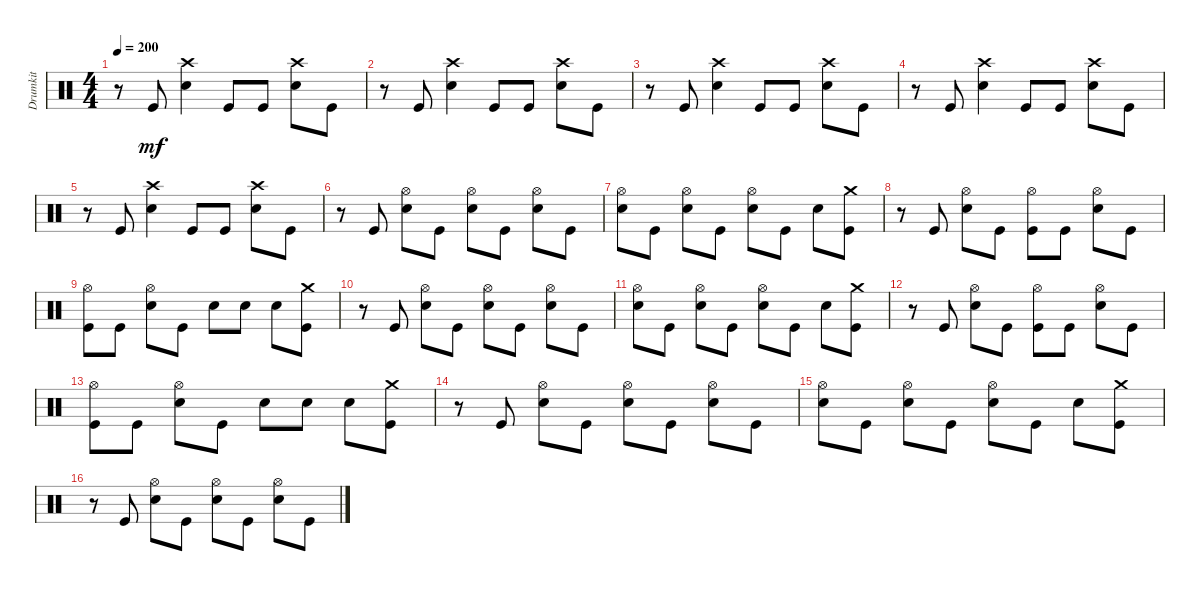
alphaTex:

\track ("Drumkit" "Drumkit") {instrument percussion}
\staff {score}
\articulation defaults
\ts (4 4)
\tempo 200
\clef neutral
\ks c
r.8{dy mf} "Kick (hit)".8 ("Snare (hit) 2" "Crash high (hit)").4 "Kick (hit)".8 "Kick (hit)".8 ("Snare (hit) 2" "Crash high (hit)").8 "Kick (hit)".8 |
r.8 "Kick (hit)".8 ("Snare (hit) 2" "Crash high (hit)").4 "Kick (hit)".8 "Kick (hit)".8 ("Snare (hit) 2" "Crash high (hit)").8 "Kick (hit)".8 |
r.8 "Kick (hit)".8 ("Snare (hit) 2" "Crash high (hit)").4 "Kick (hit)".8 "Kick (hit)".8 ("Snare (hit) 2" "Crash high (hit)").8 "Kick (hit)".8 |
r.8 "Kick (hit)".8 ("Snare (hit) 2" "Crash high (hit)").4 "Kick (hit)".8 "Kick (hit)".8 ("Snare (hit) 2" "Crash high (hit)").8 "Kick (hit)".8 |
r.8 "Kick (hit)".8 ("Snare (hit) 2" "Crash high (hit)").4 "Kick (hit)".8 "Kick (hit)".8 ("Snare (hit) 2" "Crash high (hit)").8 "Kick (hit)".8 |
r.8 "Kick (hit)".8 ("Hi-Hat (open)" "Snare (hit) 2").8 "Kick (hit)".8 ("Hi-Hat (open)" "Snare (hit) 2").8 "Kick (hit)".8 ("Snare (hit) 2" "Hi-Hat (open)").8 "Kick (hit)".8 |
("Snare (hit) 2" "Hi-Hat (open)").8 "Kick (hit)".8 ("Hi-Hat (open)" "Snare (hit) 2").8 "Kick (hit)".8 ("Hi-Hat (open)" "Snare (hit) 2").8 "Kick (hit)".8 "Snare (hit) 2".8 ("Kick (hit)" "Crash medium (hit)").8 |
r.8 "Kick (hit)".8 ("Hi-Hat (open)" "Snare (hit) 2").8 "Kick (hit)".8 ("Kick (hit)" "Hi-Hat (open)").8 "Kick (hit)".8 ("Snare (hit) 2" "Hi-Hat (open)").8 "Kick (hit)".8 |
("Kick (hit)" "Hi-Hat (open)").8 "Kick (hit)".8 ("Hi-Hat (open)" "Snare (hit) 2").8 "Kick (hit)".8 "Snare (hit) 2".8 "Snare (hit) 2".8 "Snare (hit) 2".8 ("Kick (hit)" "Crash medium (hit)").8 |
r.8 "Kick (hit)".8 ("Hi-Hat (open)" "Snare (hit) 2").8 "Kick (hit)".8 ("Hi-Hat (open)" "Snare (hit) 2").8 "Kick (hit)".8 ("Snare (hit) 2" "Hi-Hat (open)").8 "Kick (hit)".8 |
("Snare (hit) 2" "Hi-Hat (open)").8 "Kick (hit)".8 ("Hi-Hat (open)" "Snare (hit) 2").8 "Kick (hit)".8 ("Hi-Hat (open)" "Snare (hit) 2").8 "Kick (hit)".8 "Snare (hit) 2".8 ("Kick (hit)" "Crash medium (hit)").8 |
r.8 "Kick (hit)".8 ("Hi-Hat (open)" "Snare (hit) 2").8 "Kick (hit)".8 ("Kick (hit)" "Hi-Hat (open)").8 "Kick (hit)".8 ("Snare (hit) 2" "Hi-Hat (open)").8 "Kick (hit)".8 |
("Kick (hit)" "Hi-Hat (open)").8 "Kick (hit)".8 ("Hi-Hat (open)" "Snare (hit) 2").8 "Kick (hit)".8 "Snare (hit) 2".8 "Snare (hit) 2".8 "Snare (hit) 2".8 ("Kick (hit)" "Crash medium (hit)").8 |
r.8 "Kick (hit)".8 ("Hi-Hat (open)" "Snare (hit) 2").8 "Kick (hit)".8 ("Hi-Hat (open)" "Snare (hit) 2").8 "Kick (hit)".8 ("Snare (hit) 2" "Hi-Hat (open)").8 "Kick (hit)".8 |
("Snare (hit) 2" "Hi-Hat (open)").8 "Kick (hit)".8 ("Hi-Hat (open)" "Snare (hit) 2").8 "Kick (hit)".8 ("Hi-Hat (open)" "Snare (hit) 2").8 "Kick (hit)".8 "Snare (hit) 2".8 ("Kick (hit)" "Crash medium (hit)").8 |
r.8 "Kick (hit)".8 ("Hi-Hat (open)" "Snare (hit) 2").8 "Kick (hit)".8 ("Hi-Hat (open)" "Snare (hit) 2").8 "Kick (hit)".8 ("Snare (hit) 2" "Hi-Hat (open)").8 "Kick (hit)".8
